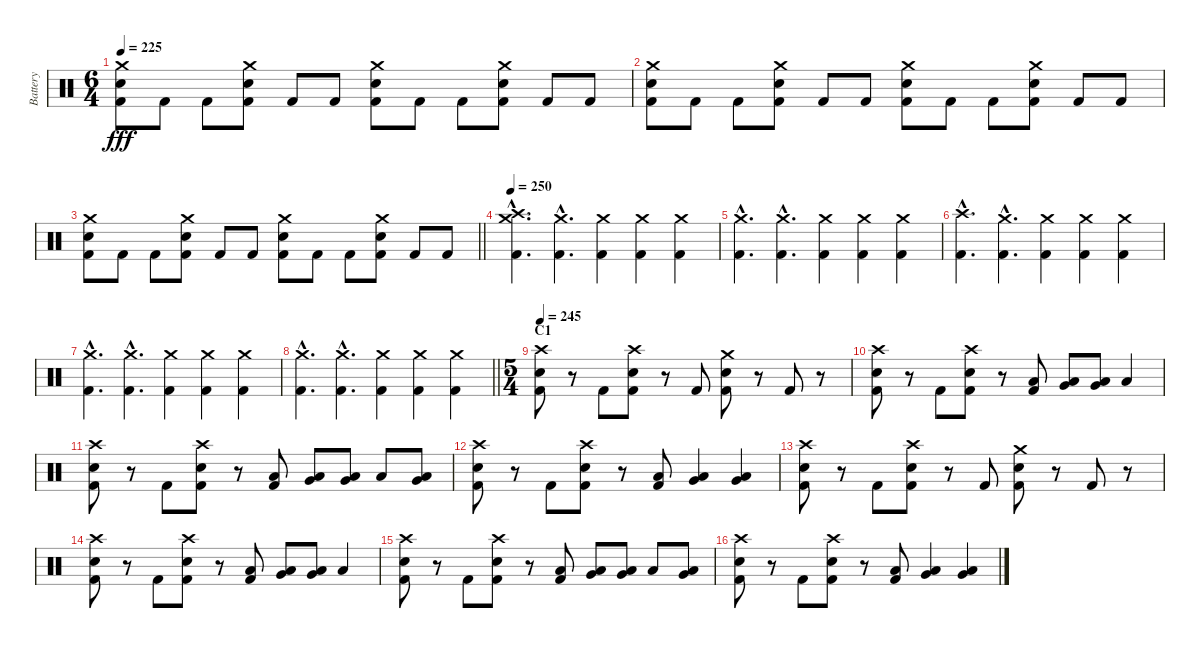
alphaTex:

\track ("Battery" "Battery") {instrument percussion}
\staff {score}
\articulation defaults
\ts (6 4)
\tempo 225
\clef neutral
\ks c
("Crash medium (hit)" "Electric Snare (hit)" "Kick (hit) 2").8{dy fff} "Kick (hit) 2".8 "Kick (hit) 2".8 ("Crash medium (hit)" "Electric Snare (hit)" "Kick (hit) 2").8 "Kick (hit) 2".8 "Kick (hit) 2".8 ("Crash medium (hit)" "Electric Snare (hit)" "Kick (hit) 2").8 "Kick (hit) 2".8 "Kick (hit) 2".8 ("Crash medium (hit)" "Electric Snare (hit)" "Kick (hit) 2").8 "Kick (hit) 2".8 "Kick (hit) 2".8 |
("Crash medium (hit)" "Electric Snare (hit)" "Kick (hit) 2").8 "Kick (hit) 2".8 "Kick (hit) 2".8 ("Crash medium (hit)" "Electric Snare (hit)" "Kick (hit) 2").8 "Kick (hit) 2".8 "Kick (hit) 2".8 ("Crash medium (hit)" "Electric Snare (hit)" "Kick (hit) 2").8 "Kick (hit) 2".8 "Kick (hit) 2".8 ("Crash medium (hit)" "Electric Snare (hit)" "Kick (hit) 2").8 "Kick (hit) 2".8 "Kick (hit) 2".8 |
\barLineRight lightlight
("Crash medium (hit)" "Electric Snare (hit)" "Kick (hit) 2").8 "Kick (hit) 2".8 "Kick (hit) 2".8 ("Crash medium (hit)" "Electric Snare (hit)" "Kick (hit) 2").8 "Kick (hit) 2".8 "Kick (hit) 2".8 ("Crash medium (hit)" "Electric Snare (hit)" "Kick (hit) 2").8 "Kick (hit) 2".8 "Kick (hit) 2".8 ("Crash medium (hit)" "Electric Snare (hit)" "Kick (hit) 2").8 "Kick (hit) 2".8 "Kick (hit) 2".8 |
\section ("" "")
\tempo 250
("Crash high (hit)"{hac} "Crash medium (hit)"{hac} "Kick (hit) 2"{hac}).4{d} ("Crash medium (hit)"{hac} "Kick (hit) 2"{hac}).4{d} ("Crash medium (hit)" "Kick (hit) 2").4 ("Crash medium (hit)" "Kick (hit) 2").4 ("Crash medium (hit)" "Kick (hit) 2").4 |
("Crash medium (hit)"{hac} "Kick (hit) 2"{hac}).4{d} ("Crash medium (hit)"{hac} "Kick (hit) 2"{hac}).4{d} ("Crash medium (hit)" "Kick (hit) 2").4 ("Crash medium (hit)" "Kick (hit) 2").4 ("Crash medium (hit)" "Kick (hit) 2").4 |
("Crash high (hit)"{hac} "Kick (hit) 2"{hac}).4{d} ("Crash medium (hit)"{hac} "Kick (hit) 2"{hac}).4{d} ("Crash medium (hit)" "Kick (hit) 2").4 ("Crash medium (hit)" "Kick (hit) 2").4 ("Crash medium (hit)" "Kick (hit) 2").4 |
("Crash medium (hit)"{hac} "Kick (hit) 2"{hac}).4{d} ("Crash medium (hit)"{hac} "Kick (hit) 2"{hac}).4{d} ("Crash medium (hit)" "Kick (hit) 2").4 ("Crash medium (hit)" "Kick (hit) 2").4 ("Crash medium (hit)" "Kick (hit) 2").4 |
\barLineRight lightlight
("Crash medium (hit)"{hac} "Kick (hit) 2"{hac}).4{d} ("Crash medium (hit)"{hac} "Kick (hit) 2"{hac}).4{d} ("Crash medium (hit)" "Kick (hit) 2").4 ("Crash medium (hit)" "Kick (hit) 2").4 ("Crash medium (hit)" "Kick (hit) 2").4 |
\ts (5 4)
\section ("" "C1")
\tempo 245
("Crash high (hit)" "Electric Snare (hit)" "Kick (hit) 2").8 r.8 "Kick (hit) 2".8 ("Crash high (hit)" "Electric Snare (hit)" "Kick (hit) 2").8 r.8 "Kick (hit) 2".8 ("Crash medium (hit)" "Electric Snare (hit)" "Kick (hit) 2").8 r.8 "Kick (hit) 2".8 r.8 |
("Crash high (hit)" "Electric Snare (hit)" "Kick (hit) 2").8 r.8 "Kick (hit) 2".8 ("Crash high (hit)" "Electric Snare (hit)" "Kick (hit) 2").8 r.8 ("Low Floor Tom (hit)" "Kick (hit) 2").8 ("Low Tom (hit)" "Very Low Tom (hit)").8 ("Very Low Tom (hit)" "Low Floor Tom (hit)").8 "Low Floor Tom (hit)".4 |
("Crash high (hit)" "Electric Snare (hit)" "Kick (hit) 2").8 r.8 "Kick (hit) 2".8 ("Crash high (hit)" "Electric Snare (hit)" "Kick (hit) 2").8 r.8 ("Low Floor Tom (hit)" "Kick (hit) 2").8 ("Low Tom (hit)" "Very Low Tom (hit)").8 ("Very Low Tom (hit)" "Low Floor Tom (hit)").8 "Low Floor Tom (hit)".8 ("Very Low Tom (hit)" "Low Floor Tom (hit)").8 |
("Crash high (hit)" "Electric Snare (hit)" "Kick (hit) 2").8 r.8 "Kick (hit) 2".8 ("Crash high (hit)" "Electric Snare (hit)" "Kick (hit) 2").8 r.8 ("Low Floor Tom (hit)" "Kick (hit) 2").8 ("Very Low Tom (hit)" "Low Floor Tom (hit)").4 ("Very Low Tom (hit)" "Low Floor Tom (hit)").4 |
("Crash high (hit)" "Electric Snare (hit)" "Kick (hit) 2").8 r.8 "Kick (hit) 2".8 ("Crash high (hit)" "Electric Snare (hit)" "Kick (hit) 2").8 r.8 "Kick (hit) 2".8 ("Crash medium (hit)" "Electric Snare (hit)" "Kick (hit) 2").8 r.8 "Kick (hit) 2".8 r.8 |
("Crash high (hit)" "Electric Snare (hit)" "Kick (hit) 2").8 r.8 "Kick (hit) 2".8 ("Crash high (hit)" "Electric Snare (hit)" "Kick (hit) 2").8 r.8 ("Low Floor Tom (hit)" "Kick (hit) 2").8 ("Low Tom (hit)" "Very Low Tom (hit)").8 ("Very Low Tom (hit)" "Low Floor Tom (hit)").8 "Low Floor Tom (hit)".4 |
("Crash high (hit)" "Electric Snare (hit)" "Kick (hit) 2").8 r.8 "Kick (hit) 2".8 ("Crash high (hit)" "Electric Snare (hit)" "Kick (hit) 2").8 r.8 ("Low Floor Tom (hit)" "Kick (hit) 2").8 ("Low Tom (hit)" "Very Low Tom (hit)").8 ("Very Low Tom (hit)" "Low Floor Tom (hit)").8 "Low Floor Tom (hit)".8 ("Very Low Tom (hit)" "Low Floor Tom (hit)").8 |
("Crash high (hit)" "Electric Snare (hit)" "Kick (hit) 2").8 r.8 "Kick (hit) 2".8 ("Crash high (hit)" "Electric Snare (hit)" "Kick (hit) 2").8 r.8 ("Low Floor Tom (hit)" "Kick (hit) 2").8 ("Very Low Tom (hit)" "Low Floor Tom (hit)").4 ("Very Low Tom (hit)" "Low Floor Tom (hit)").4
